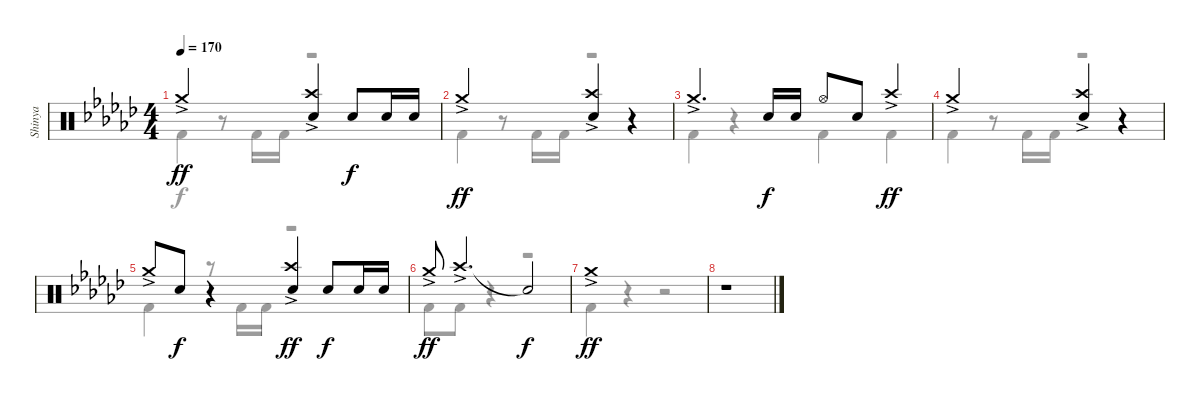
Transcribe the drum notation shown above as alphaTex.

\track ("Shinya" "Shinya") {instrument percussion}
\staff {score}
\articulation defaults
\voice
\ts (4 4)
\tempo 170
\clef neutral
\ks ebminor "Crash medium (hit)"{ac}.2{dy ff}
("Crash high (hit)"{ac} "Snare (hit) 2").4 "Snare (hit) 2".8{dy f} "Snare (hit) 2".16 "Snare (hit) 2".16 |
"Crash medium (hit)"{ac}.2{dy ff} ("Crash high (hit)"{ac} "Snare (hit) 2").4 r.4 |
"Crash medium (hit)"{ac}.4{d} "Snare (hit) 2".16{dy f} "Snare (hit) 2".16 "Hi-Hat (open)".8 "Snare (hit) 2".8 "Crash high (hit)"{ac}.4{dy ff} |
"Crash medium (hit)"{ac}.2 ("Crash high (hit)"{ac} "Snare (hit) 2").4 r.4 |
"Crash medium (hit)"{ac}.8 "Snare (hit) 2".8{dy f} r.4 ("Crash high (hit)"{ac} "Snare (hit) 2").4{dy ff} "Snare (hit) 2".8{dy f} "Snare (hit) 2".16 "Snare (hit) 2".16 |
"Crash medium (hit)"{ac}.8{dy ff} "Crash high (hit)"{ac}.4{d} "Snare (hit)"{t}.2{dy f} |
"Crash medium (hit)"{ac}.1{dy ff} |
r.1
\voice
\clef neutral
\ottava regular
\simile none
\ks ebminor "Kick (hit) 2".4{dy f}
r.8 "Kick (hit) 2".16 "Kick (hit) 2".16 r.2 |
"Kick (hit) 2".4 r.8 "Kick (hit) 2".16 "Kick (hit) 2".16 r.2 |
"Kick (hit) 2".4 r.4 "Kick (hit) 2".4 "Kick (hit) 2".4 |
"Kick (hit) 2".4 r.8 "Kick (hit) 2".16 "Kick (hit) 2".16 r.2 |
"Kick (hit) 2".4 r.8 "Kick (hit) 2".16 "Kick (hit) 2".16 r.2 |
"Kick (hit) 2".8 "Kick (hit) 2".8 r.4 r.2 |
"Kick (hit) 2".4 r.4 r.2 |
r.1
